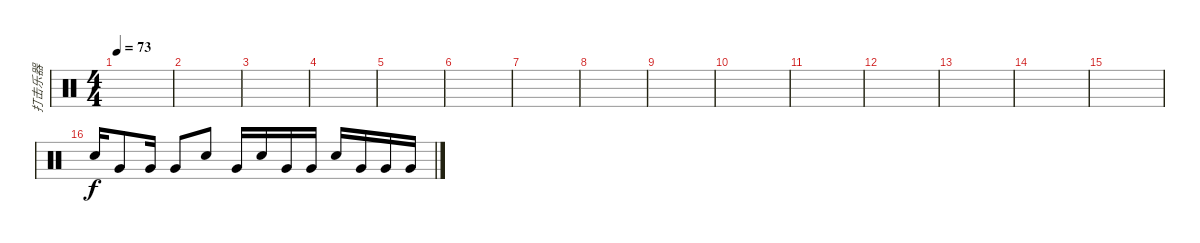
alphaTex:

\track ("打击乐器" "打击乐器") {instrument percussion}
\staff {score}
\articulation defaults
\ts (4 4)
\tempo 73
\clef neutral
\ks c
|
|
|
|
|
|
|
|
|
|
|
|
|
|
|
"Electric Snare (hit)".16 "Very Low Tom (hit)".8 "Very Low Tom (hit)".16 "Very Low Tom (hit)".8 "Electric Snare (hit)".8 "Very Low Tom (hit)".16 "Electric Snare (hit)".16 "Very Low Tom (hit)".16 "Very Low Tom (hit)".16 "Electric Snare (hit)".16 "Very Low Tom (hit)".16 "Very Low Tom (hit)".16 "Very Low Tom (hit)".16
